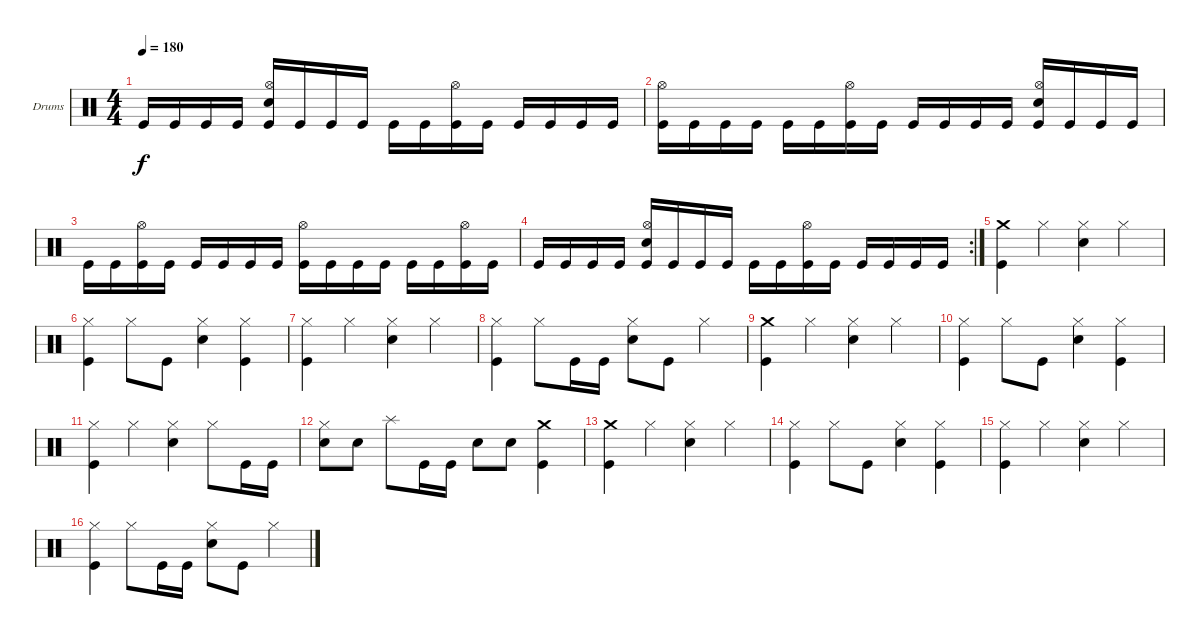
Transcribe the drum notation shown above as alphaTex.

\bracketExtendMode groupsimilarinstruments
\firstSystemTrackNameOrientation horizontal
\otherSystemsTrackNameOrientation horizontal
\track ("Drumkit" "Drums") {instrument percussion}
\staff {score}
\articulation defaults
\ts (4 4)
\tempo 180
\clef neutral
\ks c "Kick (hit)".16{dy f} "Kick (hit)".16 "Kick (hit)".16 "Kick (hit)".16
("Hi-Hat (open)" "Snare (hit) 2" "Kick (hit)").16 "Kick (hit)".16 "Kick (hit)".16 "Kick (hit)".16 "Kick (hit)".16 "Kick (hit)".16 ("Hi-Hat (open)" "Kick (hit)").16 "Kick (hit)".16 "Kick (hit)".16 "Kick (hit)".16 "Kick (hit)".16 "Kick (hit)".16 |
("Hi-Hat (open)" "Kick (hit)").16 "Kick (hit)".16 "Kick (hit)".16 "Kick (hit)".16 "Kick (hit)".16 "Kick (hit)".16 ("Hi-Hat (open)" "Kick (hit)").16 "Kick (hit)".16 "Kick (hit)".16 "Kick (hit)".16 "Kick (hit)".16 "Kick (hit)".16 ("Hi-Hat (open)" "Snare (hit) 2" "Kick (hit)").16 "Kick (hit)".16 "Kick (hit)".16 "Kick (hit)".16 |
"Kick (hit)".16 "Kick (hit)".16 ("Hi-Hat (open)" "Kick (hit)").16 "Kick (hit)".16 "Kick (hit)".16 "Kick (hit)".16 "Kick (hit)".16 "Kick (hit)".16 ("Hi-Hat (open)" "Kick (hit)").16 "Kick (hit)".16 "Kick (hit)".16 "Kick (hit)".16 "Kick (hit)".16 "Kick (hit)".16 ("Hi-Hat (open)" "Kick (hit)").16 "Kick (hit)".16 |
\rc 2 "Kick (hit)".16 "Kick (hit)".16 "Kick (hit)".16 "Kick (hit)".16
("Hi-Hat (open)" "Snare (hit) 2" "Kick (hit)").16 "Kick (hit)".16 "Kick (hit)".16 "Kick (hit)".16 "Kick (hit)".16 "Kick (hit)".16 ("Hi-Hat (open)" "Kick (hit)").16 "Kick (hit)".16 "Kick (hit)".16 "Kick (hit)".16 "Kick (hit)".16 "Kick (hit)".16 |
("Crash medium (hit)" "Kick (hit)").4 "Hi-Hat (closed)".4 ("Hi-Hat (closed)" "Snare (hit) 2").4 "Hi-Hat (closed)".4 |
("Hi-Hat (closed)" "Kick (hit)").4 "Hi-Hat (closed)".8 "Kick (hit)".8 ("Hi-Hat (closed)" "Snare (hit) 2").4 ("Hi-Hat (closed)" "Kick (hit)").4 |
("Hi-Hat (closed)" "Kick (hit)").4 "Hi-Hat (closed)".4 ("Hi-Hat (closed)" "Snare (hit) 2").4 "Hi-Hat (closed)".4 |
("Hi-Hat (closed)" "Kick (hit)").4 "Hi-Hat (closed)".8 "Kick (hit)".16 "Kick (hit)".16 ("Hi-Hat (closed)" "Snare (hit) 2").8 "Kick (hit)".8 "Hi-Hat (closed)".4 |
("Crash medium (hit)" "Kick (hit)").4 "Hi-Hat (closed)".4 ("Hi-Hat (closed)" "Snare (hit) 2").4 "Hi-Hat (closed)".4 |
("Hi-Hat (closed)" "Kick (hit)").4 "Hi-Hat (closed)".8 "Kick (hit)".8 ("Hi-Hat (closed)" "Snare (hit) 2").4 ("Hi-Hat (closed)" "Kick (hit)").4 |
("Hi-Hat (closed)" "Kick (hit)").4 "Hi-Hat (closed)".4 ("Hi-Hat (closed)" "Snare (hit) 2").4 "Hi-Hat (closed)".8 "Kick (hit)".16 "Kick (hit)".16 |
("Hi-Hat (closed)" "Snare (hit) 2").8 "Snare (hit) 2".8 "Splash (hit)".8 "Kick (hit)".16 "Kick (hit)".16 "Snare (hit) 2".8 "Snare (hit) 2".8 ("Crash medium (hit)" "Kick (hit)").4 |
("Crash medium (hit)" "Kick (hit)").4 "Hi-Hat (closed)".4 ("Hi-Hat (closed)" "Snare (hit) 2").4 "Hi-Hat (closed)".4 |
("Hi-Hat (closed)" "Kick (hit)").4 "Hi-Hat (closed)".8 "Kick (hit)".8 ("Hi-Hat (closed)" "Snare (hit) 2").4 ("Hi-Hat (closed)" "Kick (hit)").4 |
("Hi-Hat (closed)" "Kick (hit)").4 "Hi-Hat (closed)".4 ("Hi-Hat (closed)" "Snare (hit) 2").4 "Hi-Hat (closed)".4 |
("Hi-Hat (closed)" "Kick (hit)").4 "Hi-Hat (closed)".8 "Kick (hit)".16 "Kick (hit)".16 ("Hi-Hat (closed)" "Snare (hit) 2").8 "Kick (hit)".8 "Hi-Hat (closed)".4
